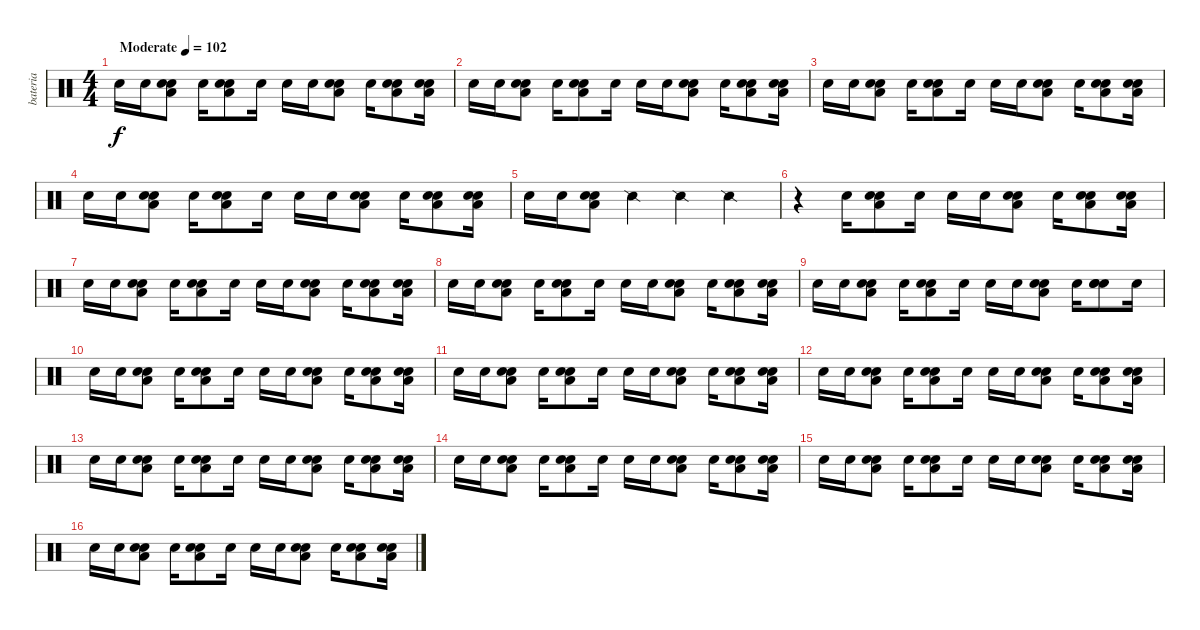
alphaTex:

\track ("bateria" "bateria") {instrument percussion}
\staff {score}
\articulation defaults
\ts (4 4)
\tempo (102 "Moderate")
\clef neutral
\ks c "Snare (hit) 2".16{dy f} "Snare (hit) 2".16
("Electric Snare (hit)" "Snare (hit) 2" "Low Floor Tom (hit)").8 "Snare (hit) 2".16 ("Electric Snare (hit)" "Snare (hit) 2" "Low Floor Tom (hit)").8 "Snare (hit) 2".16 "Snare (hit) 2".16 "Snare (hit) 2".16 ("Electric Snare (hit)" "Snare (hit) 2" "Low Floor Tom (hit)").8 "Snare (hit) 2".16 ("Electric Snare (hit)" "Snare (hit) 2" "Low Floor Tom (hit)").8 ("Electric Snare (hit)" "Snare (hit) 2" "Low Floor Tom (hit)").16 |
"Snare (hit) 2".16 "Snare (hit) 2".16 ("Electric Snare (hit)" "Snare (hit) 2" "Low Floor Tom (hit)").8 "Snare (hit) 2".16 ("Electric Snare (hit)" "Snare (hit) 2" "Low Floor Tom (hit)").8 "Snare (hit) 2".16 "Snare (hit) 2".16 "Snare (hit) 2".16 ("Electric Snare (hit)" "Snare (hit) 2" "Low Floor Tom (hit)").8 "Snare (hit) 2".16 ("Electric Snare (hit)" "Snare (hit) 2" "Low Floor Tom (hit)").8 ("Electric Snare (hit)" "Snare (hit) 2" "Low Floor Tom (hit)").16 |
"Snare (hit) 2".16 "Snare (hit) 2".16 ("Electric Snare (hit)" "Snare (hit) 2" "Low Floor Tom (hit)").8 "Snare (hit) 2".16 ("Electric Snare (hit)" "Snare (hit) 2" "Low Floor Tom (hit)").8 "Snare (hit) 2".16 "Snare (hit) 2".16 "Snare (hit) 2".16 ("Electric Snare (hit)" "Snare (hit) 2" "Low Floor Tom (hit)").8 "Snare (hit) 2".16 ("Electric Snare (hit)" "Snare (hit) 2" "Low Floor Tom (hit)").8 ("Electric Snare (hit)" "Snare (hit) 2" "Low Floor Tom (hit)").16 |
"Snare (hit) 2".16 "Snare (hit) 2".16 ("Electric Snare (hit)" "Snare (hit) 2" "Low Floor Tom (hit)").8 "Snare (hit) 2".16 ("Electric Snare (hit)" "Snare (hit) 2" "Low Floor Tom (hit)").8 "Snare (hit) 2".16 "Snare (hit) 2".16 "Snare (hit) 2".16 ("Electric Snare (hit)" "Snare (hit) 2" "Low Floor Tom (hit)").8 "Snare (hit) 2".16 ("Electric Snare (hit)" "Snare (hit) 2" "Low Floor Tom (hit)").8 ("Electric Snare (hit)" "Snare (hit) 2" "Low Floor Tom (hit)").16 |
"Snare (hit) 2".16 "Snare (hit) 2".16 ("Electric Snare (hit)" "Snare (hit) 2" "Low Floor Tom (hit)").8 "Snare (side stick) 2".4 "Snare (side stick) 2".4 "Snare (side stick) 2".4 |
r.4 "Snare (hit) 2".16 ("Electric Snare (hit)" "Snare (hit) 2" "Low Floor Tom (hit)").8 "Snare (hit) 2".16 "Snare (hit) 2".16 "Snare (hit) 2".16 ("Electric Snare (hit)" "Snare (hit) 2" "Low Floor Tom (hit)").8 "Snare (hit) 2".16 ("Electric Snare (hit)" "Snare (hit) 2" "Low Floor Tom (hit)").8 ("Electric Snare (hit)" "Snare (hit) 2" "Low Floor Tom (hit)").16 |
"Snare (hit) 2".16 "Snare (hit) 2".16 ("Electric Snare (hit)" "Snare (hit) 2" "Low Floor Tom (hit)").8 "Snare (hit) 2".16 ("Electric Snare (hit)" "Snare (hit) 2" "Low Floor Tom (hit)").8 "Snare (hit) 2".16 "Snare (hit) 2".16 "Snare (hit) 2".16 ("Electric Snare (hit)" "Snare (hit) 2" "Low Floor Tom (hit)").8 "Snare (hit) 2".16 ("Electric Snare (hit)" "Snare (hit) 2" "Low Floor Tom (hit)").8 ("Electric Snare (hit)" "Snare (hit) 2" "Low Floor Tom (hit)").16 |
"Snare (hit) 2".16 "Snare (hit) 2".16 ("Electric Snare (hit)" "Snare (hit) 2" "Low Floor Tom (hit)").8 "Snare (hit) 2".16 ("Electric Snare (hit)" "Snare (hit) 2" "Low Floor Tom (hit)").8 "Snare (hit) 2".16 "Snare (hit) 2".16 "Snare (hit) 2".16 ("Electric Snare (hit)" "Snare (hit) 2" "Low Floor Tom (hit)").8 "Snare (hit) 2".16 ("Electric Snare (hit)" "Snare (hit) 2" "Low Floor Tom (hit)").8 ("Electric Snare (hit)" "Snare (hit) 2" "Low Floor Tom (hit)").16 |
"Snare (hit) 2".16 "Snare (hit) 2".16 ("Electric Snare (hit)" "Snare (hit) 2" "Low Floor Tom (hit)").8 "Snare (hit) 2".16 ("Electric Snare (hit)" "Snare (hit) 2" "Low Floor Tom (hit)").8 "Snare (hit) 2".16 "Snare (hit) 2".16 "Snare (hit) 2".16 ("Electric Snare (hit)" "Snare (hit) 2" "Low Floor Tom (hit)").8 "Snare (hit) 2".16 ("Electric Snare (hit)" "Snare (hit) 2" "Electric Snare (hit)").8 "Snare (hit) 2".16 |
"Snare (hit) 2".16 "Snare (hit) 2".16 ("Electric Snare (hit)" "Snare (hit) 2" "Low Floor Tom (hit)").8 "Snare (hit) 2".16 ("Electric Snare (hit)" "Snare (hit) 2" "Low Floor Tom (hit)").8 "Snare (hit) 2".16 "Snare (hit) 2".16 "Snare (hit) 2".16 ("Electric Snare (hit)" "Snare (hit) 2" "Low Floor Tom (hit)").8 "Snare (hit) 2".16 ("Electric Snare (hit)" "Snare (hit) 2" "Low Floor Tom (hit)").8 ("Electric Snare (hit)" "Snare (hit) 2" "Low Floor Tom (hit)").16 |
"Snare (hit) 2".16 "Snare (hit) 2".16 ("Electric Snare (hit)" "Snare (hit) 2" "Low Floor Tom (hit)").8 "Snare (hit) 2".16 ("Electric Snare (hit)" "Snare (hit) 2" "Low Floor Tom (hit)").8 "Snare (hit) 2".16 "Snare (hit) 2".16 "Snare (hit) 2".16 ("Electric Snare (hit)" "Snare (hit) 2" "Low Floor Tom (hit)").8 "Snare (hit) 2".16 ("Electric Snare (hit)" "Snare (hit) 2" "Low Floor Tom (hit)").8 ("Electric Snare (hit)" "Snare (hit) 2" "Low Floor Tom (hit)").16 |
"Snare (hit) 2".16 "Snare (hit) 2".16 ("Electric Snare (hit)" "Snare (hit) 2" "Low Floor Tom (hit)").8 "Snare (hit) 2".16 ("Electric Snare (hit)" "Snare (hit) 2" "Low Floor Tom (hit)").8 "Snare (hit) 2".16 "Snare (hit) 2".16 "Snare (hit) 2".16 ("Electric Snare (hit)" "Snare (hit) 2" "Low Floor Tom (hit)").8 "Snare (hit) 2".16 ("Electric Snare (hit)" "Snare (hit) 2" "Low Floor Tom (hit)").8 ("Electric Snare (hit)" "Snare (hit) 2" "Low Floor Tom (hit)").16 |
"Snare (hit) 2".16 "Snare (hit) 2".16 ("Electric Snare (hit)" "Snare (hit) 2" "Low Floor Tom (hit)").8 "Snare (hit) 2".16 ("Electric Snare (hit)" "Snare (hit) 2" "Low Floor Tom (hit)").8 "Snare (hit) 2".16 "Snare (hit) 2".16 "Snare (hit) 2".16 ("Electric Snare (hit)" "Snare (hit) 2" "Low Floor Tom (hit)").8 "Snare (hit) 2".16 ("Electric Snare (hit)" "Snare (hit) 2" "Low Floor Tom (hit)").8 ("Electric Snare (hit)" "Snare (hit) 2" "Low Floor Tom (hit)").16 |
"Snare (hit) 2".16 "Snare (hit) 2".16 ("Electric Snare (hit)" "Snare (hit) 2" "Low Floor Tom (hit)").8 "Snare (hit) 2".16 ("Electric Snare (hit)" "Snare (hit) 2" "Low Floor Tom (hit)").8 "Snare (hit) 2".16 "Snare (hit) 2".16 "Snare (hit) 2".16 ("Electric Snare (hit)" "Snare (hit) 2" "Low Floor Tom (hit)").8 "Snare (hit) 2".16 ("Electric Snare (hit)" "Snare (hit) 2" "Low Floor Tom (hit)").8 ("Electric Snare (hit)" "Snare (hit) 2" "Low Floor Tom (hit)").16 |
"Snare (hit) 2".16 "Snare (hit) 2".16 ("Electric Snare (hit)" "Snare (hit) 2" "Low Floor Tom (hit)").8 "Snare (hit) 2".16 ("Electric Snare (hit)" "Snare (hit) 2" "Low Floor Tom (hit)").8 "Snare (hit) 2".16 "Snare (hit) 2".16 "Snare (hit) 2".16 ("Electric Snare (hit)" "Snare (hit) 2" "Low Floor Tom (hit)").8 "Snare (hit) 2".16 ("Electric Snare (hit)" "Snare (hit) 2" "Low Floor Tom (hit)").8 ("Electric Snare (hit)" "Snare (hit) 2" "Low Floor Tom (hit)").16 |
"Snare (hit) 2".16 "Snare (hit) 2".16 ("Electric Snare (hit)" "Snare (hit) 2" "Low Floor Tom (hit)").8 "Snare (hit) 2".16 ("Electric Snare (hit)" "Snare (hit) 2" "Low Floor Tom (hit)").8 "Snare (hit) 2".16 "Snare (hit) 2".16 "Snare (hit) 2".16 ("Electric Snare (hit)" "Snare (hit) 2" "Low Floor Tom (hit)").8 "Snare (hit) 2".16 ("Electric Snare (hit)" "Snare (hit) 2" "Low Floor Tom (hit)").8 ("Electric Snare (hit)" "Snare (hit) 2" "Low Floor Tom (hit)").16
